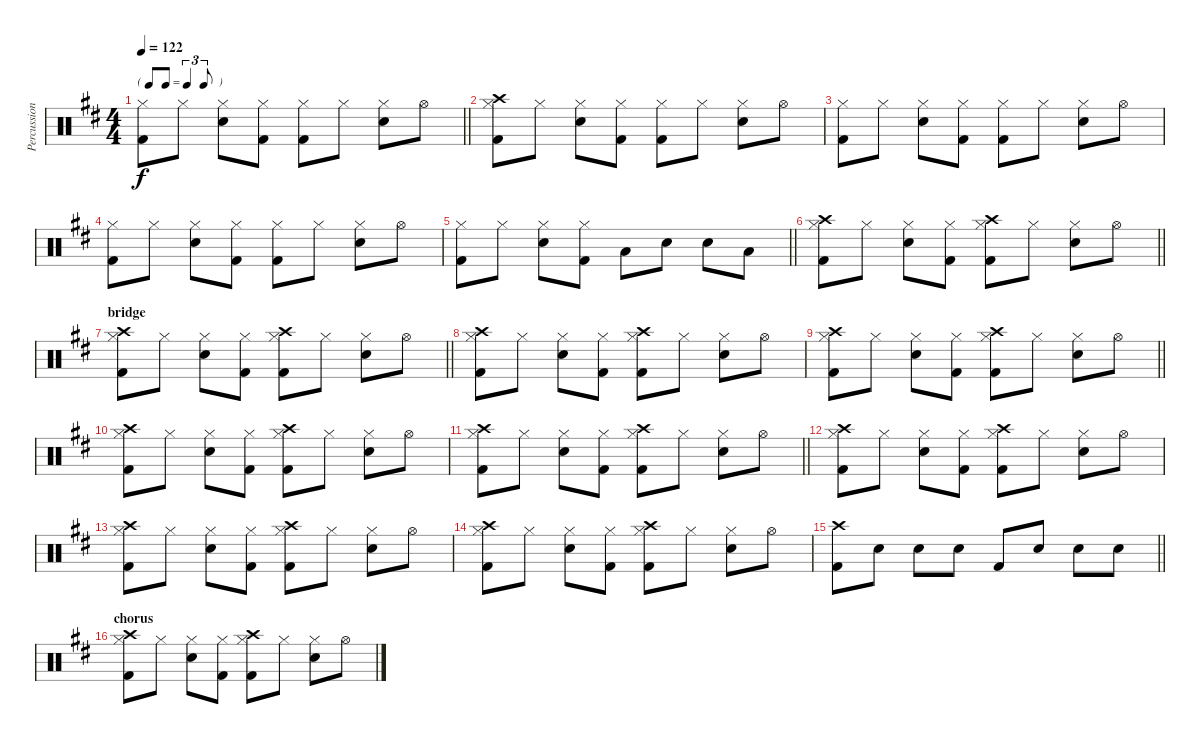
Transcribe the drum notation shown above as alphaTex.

\track ("Percussioni" "Percussion") {instrument percussion}
\staff {score}
\articulation defaults
\ts (4 4)
\tf triplet8th
\tempo 122
\clef neutral
\barLineRight lightlight
\ks d
("Hi-Hat (closed)" "Kick (hit) 2").8{dy f} "Hi-Hat (closed)".8 ("Hi-Hat (closed)" "Electric Snare (hit)").8 ("Hi-Hat (closed)" "Kick (hit) 2").8 ("Hi-Hat (closed)" "Kick (hit) 2").8 "Hi-Hat (closed)".8 ("Hi-Hat (closed)" "Electric Snare (hit)").8 "Hi-Hat (open)".8 |
("Hi-Hat (closed)" "Kick (hit) 2" "Crash high (hit)").8 "Hi-Hat (closed)".8 ("Hi-Hat (closed)" "Electric Snare (hit)").8 ("Hi-Hat (closed)" "Kick (hit) 2").8 ("Hi-Hat (closed)" "Kick (hit) 2").8 "Hi-Hat (closed)".8 ("Hi-Hat (closed)" "Electric Snare (hit)").8 "Hi-Hat (open)".8 |
("Hi-Hat (closed)" "Kick (hit) 2").8 "Hi-Hat (closed)".8 ("Hi-Hat (closed)" "Electric Snare (hit)").8 ("Hi-Hat (closed)" "Kick (hit) 2").8 ("Hi-Hat (closed)" "Kick (hit) 2").8 "Hi-Hat (closed)".8 ("Hi-Hat (closed)" "Electric Snare (hit)").8 "Hi-Hat (open)".8 |
("Hi-Hat (closed)" "Kick (hit) 2").8 "Hi-Hat (closed)".8 ("Hi-Hat (closed)" "Electric Snare (hit)").8 ("Hi-Hat (closed)" "Kick (hit) 2").8 ("Hi-Hat (closed)" "Kick (hit) 2").8 "Hi-Hat (closed)".8 ("Hi-Hat (closed)" "Electric Snare (hit)").8 "Hi-Hat (open)".8 |
\barLineRight lightlight
("Hi-Hat (closed)" "Kick (hit) 2").8 "Hi-Hat (closed)".8 ("Hi-Hat (closed)" "Electric Snare (hit)").8 ("Hi-Hat (closed)" "Kick (hit) 2").8 "Low Tom (hit)".8 "Electric Snare (hit)".8 "Electric Snare (hit)".8 "Low Tom (hit)".8 |
\barLineRight lightlight
("Hi-Hat (closed)" "Kick (hit) 2" "Crash high (hit)").8 "Hi-Hat (closed)".8 ("Hi-Hat (closed)" "Electric Snare (hit)").8 ("Hi-Hat (closed)" "Kick (hit) 2").8 ("Hi-Hat (closed)" "Kick (hit) 2" "Crash high (hit)").8 "Hi-Hat (closed)".8 ("Hi-Hat (closed)" "Electric Snare (hit)").8 "Hi-Hat (open)".8 |
\section ("" "bridge")
\barLineRight lightlight
("Hi-Hat (closed)" "Kick (hit) 2" "Crash high (hit)").8 "Hi-Hat (closed)".8 ("Hi-Hat (closed)" "Electric Snare (hit)").8 ("Hi-Hat (closed)" "Kick (hit) 2").8 ("Hi-Hat (closed)" "Kick (hit) 2" "Crash high (hit)").8 "Hi-Hat (closed)".8 ("Hi-Hat (closed)" "Electric Snare (hit)").8 "Hi-Hat (open)".8 |
("Hi-Hat (closed)" "Kick (hit) 2" "Crash high (hit)").8 "Hi-Hat (closed)".8 ("Hi-Hat (closed)" "Electric Snare (hit)").8 ("Hi-Hat (closed)" "Kick (hit) 2").8 ("Hi-Hat (closed)" "Kick (hit) 2" "Crash high (hit)").8 "Hi-Hat (closed)".8 ("Hi-Hat (closed)" "Electric Snare (hit)").8 "Hi-Hat (open)".8 |
\barLineRight lightlight
("Hi-Hat (closed)" "Kick (hit) 2" "Crash high (hit)").8 "Hi-Hat (closed)".8 ("Hi-Hat (closed)" "Electric Snare (hit)").8 ("Hi-Hat (closed)" "Kick (hit) 2").8 ("Hi-Hat (closed)" "Kick (hit) 2" "Crash high (hit)").8 "Hi-Hat (closed)".8 ("Hi-Hat (closed)" "Electric Snare (hit)").8 "Hi-Hat (open)".8 |
("Hi-Hat (closed)" "Kick (hit) 2" "Crash high (hit)").8 "Hi-Hat (closed)".8 ("Hi-Hat (closed)" "Electric Snare (hit)").8 ("Hi-Hat (closed)" "Kick (hit) 2").8 ("Hi-Hat (closed)" "Kick (hit) 2" "Crash high (hit)").8 "Hi-Hat (closed)".8 ("Hi-Hat (closed)" "Electric Snare (hit)").8 "Hi-Hat (open)".8 |
\barLineRight lightlight
("Hi-Hat (closed)" "Kick (hit) 2" "Crash high (hit)").8 "Hi-Hat (closed)".8 ("Hi-Hat (closed)" "Electric Snare (hit)").8 ("Hi-Hat (closed)" "Kick (hit) 2").8 ("Hi-Hat (closed)" "Kick (hit) 2" "Crash high (hit)").8 "Hi-Hat (closed)".8 ("Hi-Hat (closed)" "Electric Snare (hit)").8 "Hi-Hat (open)".8 |
("Hi-Hat (closed)" "Kick (hit) 2" "Crash high (hit)").8 "Hi-Hat (closed)".8 ("Hi-Hat (closed)" "Electric Snare (hit)").8 ("Hi-Hat (closed)" "Kick (hit) 2").8 ("Hi-Hat (closed)" "Kick (hit) 2" "Crash high (hit)").8 "Hi-Hat (closed)".8 ("Hi-Hat (closed)" "Electric Snare (hit)").8 "Hi-Hat (open)".8 |
("Hi-Hat (closed)" "Kick (hit) 2" "Crash high (hit)").8 "Hi-Hat (closed)".8 ("Hi-Hat (closed)" "Electric Snare (hit)").8 ("Hi-Hat (closed)" "Kick (hit) 2").8 ("Hi-Hat (closed)" "Kick (hit) 2" "Crash high (hit)").8 "Hi-Hat (closed)".8 ("Hi-Hat (closed)" "Electric Snare (hit)").8 "Hi-Hat (open)".8 |
("Hi-Hat (closed)" "Kick (hit) 2" "Crash high (hit)").8 "Hi-Hat (closed)".8 ("Hi-Hat (closed)" "Electric Snare (hit)").8 ("Hi-Hat (closed)" "Kick (hit) 2").8 ("Hi-Hat (closed)" "Kick (hit) 2" "Crash high (hit)").8 "Hi-Hat (closed)".8 ("Hi-Hat (closed)" "Electric Snare (hit)").8 "Hi-Hat (open)".8 |
\barLineRight lightlight
("Kick (hit) 2" "Crash high (hit)").8 "Electric Snare (hit)".8 "Electric Snare (hit)".8 "Electric Snare (hit)".8 "Kick (hit) 2".8 "Electric Snare (hit)".8 "Electric Snare (hit)".8 "Electric Snare (hit)".8 |
\section ("" "chorus")
("Hi-Hat (closed)" "Kick (hit) 2" "Crash high (hit)").8 "Hi-Hat (closed)".8 ("Hi-Hat (closed)" "Electric Snare (hit)").8 ("Hi-Hat (closed)" "Kick (hit) 2").8 ("Hi-Hat (closed)" "Kick (hit) 2" "Crash high (hit)").8 "Hi-Hat (closed)".8 ("Hi-Hat (closed)" "Electric Snare (hit)").8 "Hi-Hat (open)".8
